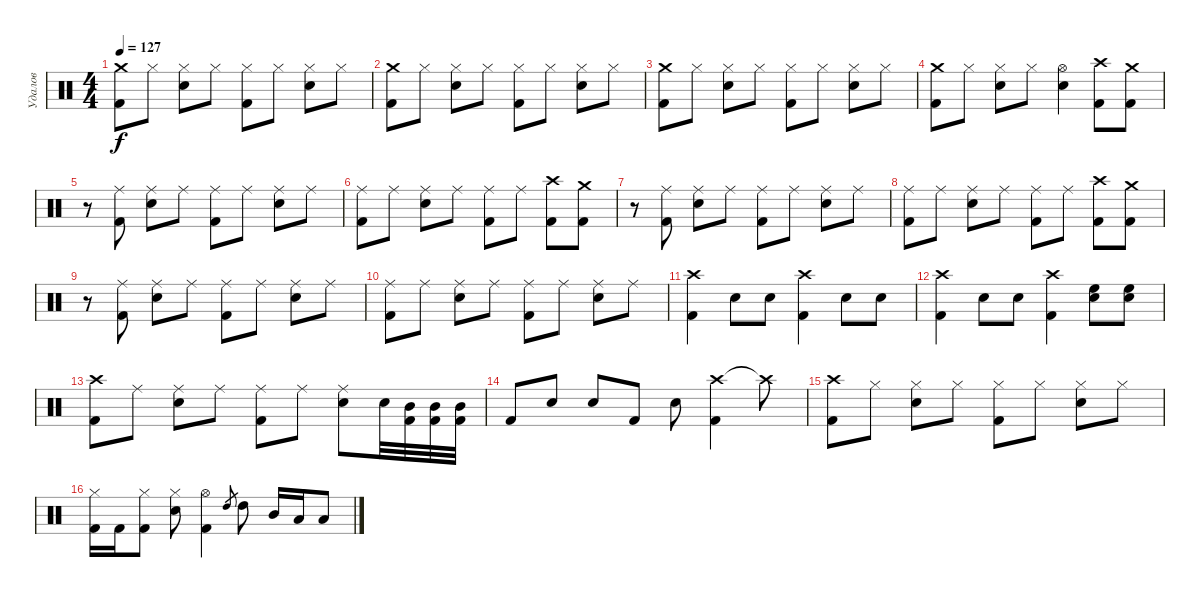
\track ("Удалов" "Удалов") {instrument percussion}
\staff {score}
\articulation defaults
\ts (4 4)
\tempo 127
\clef neutral
\ks c
("Crash medium (hit)" "Kick (hit) 2").8{dy f} "Hi-Hat (closed)".8 ("Hi-Hat (closed)" "Snare (hit) 2").8 "Hi-Hat (closed)".8 ("Hi-Hat (closed)" "Kick (hit) 2").8 "Hi-Hat (closed)".8 ("Hi-Hat (closed)" "Snare (hit) 2").8 "Hi-Hat (closed)".8 |
("Crash medium (hit)" "Kick (hit) 2").8 "Hi-Hat (closed)".8 ("Hi-Hat (closed)" "Snare (hit) 2").8 "Hi-Hat (closed)".8 ("Hi-Hat (closed)" "Kick (hit) 2").8 "Hi-Hat (closed)".8 ("Hi-Hat (closed)" "Snare (hit) 2").8 "Hi-Hat (closed)".8 |
("Crash medium (hit)" "Kick (hit) 2").8 "Hi-Hat (closed)".8 ("Hi-Hat (closed)" "Snare (hit) 2").8 "Hi-Hat (closed)".8 ("Hi-Hat (closed)" "Kick (hit) 2").8 "Hi-Hat (closed)".8 ("Hi-Hat (closed)" "Snare (hit) 2").8 "Hi-Hat (closed)".8 |
("Crash medium (hit)" "Kick (hit) 2").8 "Hi-Hat (closed)".8 ("Hi-Hat (closed)" "Snare (hit) 2").8 "Hi-Hat (closed)".8 ("Hi-Hat (open)" "Snare (hit) 2").4 ("Crash high (hit)" "Kick (hit) 2").8 ("Crash medium (hit)" "Kick (hit) 2").8 |
r.8 ("Ride (middle)" "Kick (hit) 2").8 ("Ride (middle)" "Snare (hit) 2").8 "Ride (middle)".8 ("Ride (middle)" "Kick (hit) 2").8 "Ride (middle)".8 ("Ride (middle)" "Snare (hit) 2").8 "Ride (middle)".8 |
("Ride (middle)" "Kick (hit) 2").8 "Ride (middle)".8 ("Ride (middle)" "Snare (hit) 2").8 "Ride (middle)".8 ("Ride (middle)" "Kick (hit) 2").8 "Ride (middle)".8 ("Crash high (hit)" "Kick (hit) 2").8 ("Crash medium (hit)" "Kick (hit) 2").8 |
r.8 ("Ride (middle)" "Kick (hit) 2").8 ("Ride (middle)" "Snare (hit) 2").8 "Ride (middle)".8 ("Ride (middle)" "Kick (hit) 2").8 "Ride (middle)".8 ("Ride (middle)" "Snare (hit) 2").8 "Ride (middle)".8 |
("Ride (middle)" "Kick (hit) 2").8 "Ride (middle)".8 ("Ride (middle)" "Snare (hit) 2").8 "Ride (middle)".8 ("Ride (middle)" "Kick (hit) 2").8 "Ride (middle)".8 ("Crash high (hit)" "Kick (hit) 2").8 ("Crash medium (hit)" "Kick (hit) 2").8 |
r.8 ("Ride (middle)" "Kick (hit) 2").8 ("Ride (middle)" "Snare (hit) 2").8 "Ride (middle)".8 ("Ride (middle)" "Kick (hit) 2").8 "Ride (middle)".8 ("Ride (middle)" "Snare (hit) 2").8 "Ride (middle)".8 |
("Ride (middle)" "Kick (hit) 2").8 "Ride (middle)".8 ("Ride (middle)" "Snare (hit) 2").8 "Ride (middle)".8 ("Ride (middle)" "Kick (hit) 2").8 "Ride (middle)".8 ("Ride (middle)" "Snare (hit) 2").8 "Ride (middle)".8 |
("Crash high (hit)" "Kick (hit) 2").4 "Snare (hit) 2".8 "Snare (hit) 2".8 ("Crash high (hit)" "Kick (hit) 2").4 "Snare (hit) 2".8 "Snare (hit) 2".8 |
("Crash high (hit)" "Kick (hit) 2").4 "Snare (hit) 2".8 "Snare (hit) 2".8 ("Crash high (hit)" "Kick (hit) 2").4 ("Snare (hit) 2" "High Floor Tom (hit)").8 ("Snare (hit) 2" "High Floor Tom (hit)").8 |
("Crash high (hit)" "Kick (hit) 2").8 "Ride (middle)".8 ("Ride (middle)" "Snare (hit) 2").8 "Ride (middle)".8 ("Ride (middle)" "Kick (hit) 2").8 "Ride (middle)".8 ("Ride (middle)" "Snare (hit) 2").8 "Snare (hit) 2".32 ("Mid Tom (hit)" "Kick (hit) 2").32 ("Mid Tom (hit)" "Kick (hit) 2").32 ("Mid Tom (hit)" "Kick (hit) 2").32 |
"Kick (hit) 2".8 "Snare (hit) 2".8 "Snare (hit) 2".8 "Kick (hit) 2".8 "Snare (hit) 2".8 ("Crash high (hit)" "Kick (hit) 2").4 "Crash high (hit)"{t}.8 |
("Crash high (hit)" "Kick (hit) 2").8 "Hi-Hat (closed)".8 ("Hi-Hat (closed)" "Snare (hit) 2").8 "Hi-Hat (closed)".8 ("Hi-Hat (closed)" "Kick (hit) 2").8 "Hi-Hat (closed)".8 ("Hi-Hat (closed)" "Snare (hit) 2").8 "Hi-Hat (closed)".8 |
("Hi-Hat (closed)" "Kick (hit) 2").16 "Kick (hit) 2".16 ("Hi-Hat (closed)" "Kick (hit) 2").8 ("Hi-Hat (closed)" "Snare (hit) 2").8 ("Hi-Hat (open)" "Kick (hit) 2").4 "High Tom (hit)".8{gr} "High Tom (hit)".8 "Mid Tom (hit)".16 "Low Tom (hit)".16 "Low Tom (hit)".8
